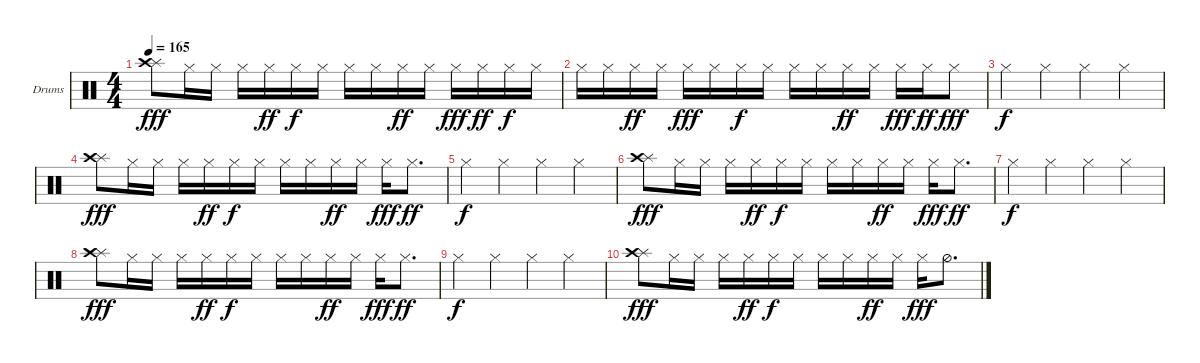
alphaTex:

\defaultSystemsLayout 4
\bracketExtendMode groupsimilarinstruments
\firstSystemTrackNameOrientation horizontal
\otherSystemsTrackNameOrientation horizontal
\track ("Helders" "Drums") {instrument percussion}
\staff {score}
\articulation defaults
\ts (4 4)
\tempo 165
\clef neutral
\ks c
("Splash (hit)" "Crash high (hit)").8{dy fff} "Hi-Hat (closed)".16 "Hi-Hat (closed)".16 "Hi-Hat (closed)".16 "Hi-Hat (closed)".16{dy ff} "Hi-Hat (closed)".16{dy f} "Hi-Hat (closed)".16 "Hi-Hat (closed)".16 "Hi-Hat (closed)".16 "Hi-Hat (closed)".16{dy ff} "Hi-Hat (closed)".16 "Hi-Hat (closed)".16{dy fff} "Hi-Hat (closed)".16{dy ff} "Hi-Hat (closed)".16{dy f} "Hi-Hat (closed)".16 |
"Hi-Hat (closed)".16 "Hi-Hat (closed)".16 "Hi-Hat (closed)".16{dy ff} "Hi-Hat (closed)".16 "Hi-Hat (closed)".16{dy fff} "Hi-Hat (closed)".16 "Hi-Hat (closed)".16{dy f} "Hi-Hat (closed)".16 "Hi-Hat (closed)".16 "Hi-Hat (closed)".16 "Hi-Hat (closed)".16{dy ff} "Hi-Hat (closed)".16 "Hi-Hat (closed)".16{dy fff} "Hi-Hat (closed)".16{dy ff} "Hi-Hat (closed)".8{dy fff} |
"Hi-Hat (closed)".4{dy f} "Hi-Hat (closed)".4 "Hi-Hat (closed)".4 "Hi-Hat (closed)".4 |
("Splash (hit)" "Crash high (hit)").8{dy fff} "Hi-Hat (closed)".16 "Hi-Hat (closed)".16 "Hi-Hat (closed)".16 "Hi-Hat (closed)".16{dy ff} "Hi-Hat (closed)".16{dy f} "Hi-Hat (closed)".16 "Hi-Hat (closed)".16 "Hi-Hat (closed)".16 "Hi-Hat (closed)".16{dy ff} "Hi-Hat (closed)".16 "Hi-Hat (closed)".16{dy fff} "Hi-Hat (closed)".8{d dy ff} |
"Hi-Hat (closed)".4{dy f} "Hi-Hat (closed)".4 "Hi-Hat (closed)".4 "Hi-Hat (closed)".4 |
("Splash (hit)" "Crash high (hit)").8{dy fff} "Hi-Hat (closed)".16 "Hi-Hat (closed)".16 "Hi-Hat (closed)".16 "Hi-Hat (closed)".16{dy ff} "Hi-Hat (closed)".16{dy f} "Hi-Hat (closed)".16 "Hi-Hat (closed)".16 "Hi-Hat (closed)".16 "Hi-Hat (closed)".16{dy ff} "Hi-Hat (closed)".16 "Hi-Hat (closed)".16{dy fff} "Hi-Hat (closed)".8{d dy ff} |
"Hi-Hat (closed)".4{dy f} "Hi-Hat (closed)".4 "Hi-Hat (closed)".4 "Hi-Hat (closed)".4 |
("Splash (hit)" "Crash high (hit)").8{dy fff} "Hi-Hat (closed)".16 "Hi-Hat (closed)".16 "Hi-Hat (closed)".16 "Hi-Hat (closed)".16{dy ff} "Hi-Hat (closed)".16{dy f} "Hi-Hat (closed)".16 "Hi-Hat (closed)".16 "Hi-Hat (closed)".16 "Hi-Hat (closed)".16{dy ff} "Hi-Hat (closed)".16 "Hi-Hat (closed)".16{dy fff} "Hi-Hat (closed)".8{d dy ff} |
"Hi-Hat (closed)".4{dy f} "Hi-Hat (closed)".4 "Hi-Hat (closed)".4 "Hi-Hat (closed)".4 |
("Splash (hit)" "Crash high (hit)").8{dy fff} "Hi-Hat (closed)".16 "Hi-Hat (closed)".16 "Hi-Hat (closed)".16 "Hi-Hat (closed)".16{dy ff} "Hi-Hat (closed)".16{dy f} "Hi-Hat (closed)".16 "Hi-Hat (closed)".16 "Hi-Hat (closed)".16 "Hi-Hat (closed)".16{dy ff} "Hi-Hat (closed)".16 "Hi-Hat (closed)".16{dy fff} "Hi-Hat (half)".8{d}
